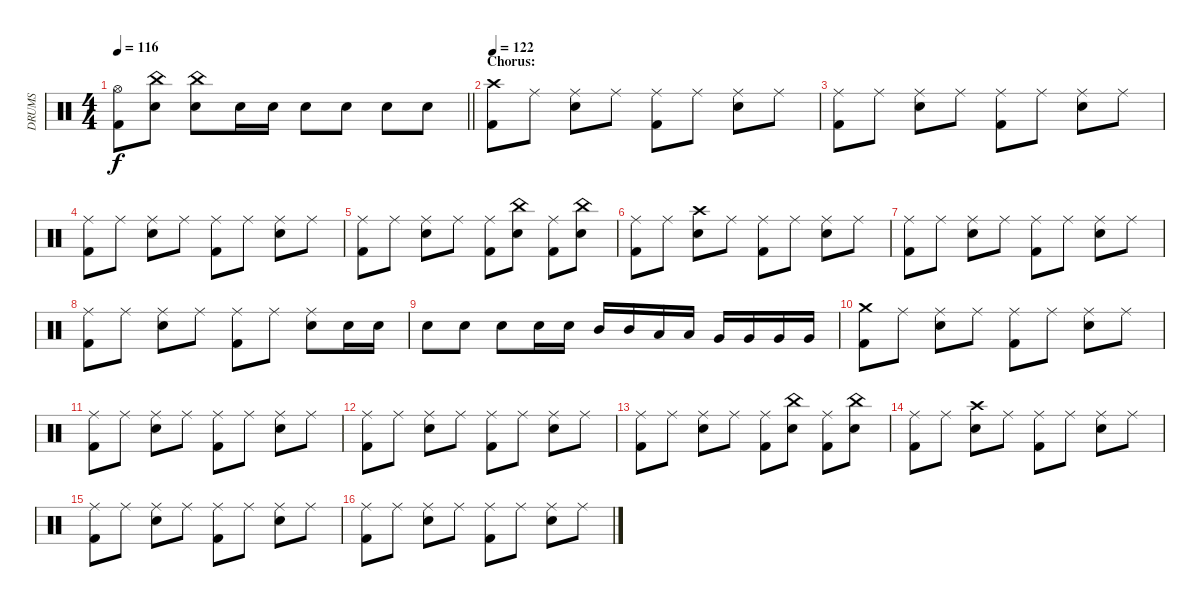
\track ("DRUMS" "DRUMS") {instrument percussion}
\staff {score}
\articulation defaults
\ts (4 4)
\tempo 116
\clef neutral
\barLineRight lightlight
\ks c
("Hi-Hat (open)" "Kick (hit) 2").8{dy f} ("China (hit)" "Snare (hit) 2").8 ("China (hit)" "Snare (hit) 2").8 "Snare (hit) 2".16 "Snare (hit) 2".16 "Snare (hit) 2".8 "Snare (hit) 2".8 "Snare (hit) 2".8 "Snare (hit) 2".8 |
\section ("" "Chorus:")
\tempo 122
("Crash high (hit)" "Kick (hit) 2").8 "Ride (middle)".8 ("Ride (middle)" "Snare (hit) 2").8 "Ride (middle)".8 ("Ride (middle)" "Kick (hit) 2").8 "Ride (middle)".8 ("Ride (middle)" "Snare (hit) 2").8 "Ride (middle)".8 |
("Ride (middle)" "Kick (hit) 2").8 "Ride (middle)".8 ("Ride (middle)" "Snare (hit) 2").8 "Ride (middle)".8 ("Ride (middle)" "Kick (hit) 2").8 "Ride (middle)".8 ("Ride (middle)" "Snare (hit) 2").8 "Ride (middle)".8 |
("Ride (middle)" "Kick (hit) 2").8 "Ride (middle)".8 ("Ride (middle)" "Snare (hit) 2").8 "Ride (middle)".8 ("Ride (middle)" "Kick (hit) 2").8 "Ride (middle)".8 ("Ride (middle)" "Snare (hit) 2").8 "Ride (middle)".8 |
("Ride (middle)" "Kick (hit) 2").8 "Ride (middle)".8 ("Ride (middle)" "Snare (hit) 2").8 "Ride (middle)".8 ("Ride (middle)" "Kick (hit) 2").8 ("China (hit)" "Snare (hit) 2").8 ("Ride (middle)" "Kick (hit) 2").8 ("China (hit)" "Snare (hit) 2").8 |
("Ride (middle)" "Kick (hit) 2").8 "Ride (middle)".8 ("Crash high (hit)" "Snare (hit) 2").8 "Ride (middle)".8 ("Ride (middle)" "Kick (hit) 2").8 "Ride (middle)".8 ("Ride (middle)" "Snare (hit) 2").8 "Ride (middle)".8 |
("Ride (middle)" "Kick (hit) 2").8 "Ride (middle)".8 ("Ride (middle)" "Snare (hit) 2").8 "Ride (middle)".8 ("Ride (middle)" "Kick (hit) 2").8 "Ride (middle)".8 ("Ride (middle)" "Snare (hit) 2").8 "Ride (middle)".8 |
("Ride (middle)" "Kick (hit) 2").8 "Ride (middle)".8 ("Ride (middle)" "Snare (hit) 2").8 "Ride (middle)".8 ("Ride (middle)" "Kick (hit) 2").8 "Ride (middle)".8 ("Ride (middle)" "Snare (hit) 2").8 "Snare (hit) 2".16 "Snare (hit) 2".16 |
"Snare (hit) 2".8 "Snare (hit) 2".8 "Snare (hit) 2".8 "Snare (hit) 2".16 "Snare (hit) 2".16 "Mid Tom (hit)".16 "Mid Tom (hit)".16 "Low Tom (hit)".16 "Low Tom (hit)".16 "Very Low Tom (hit)".16 "Very Low Tom (hit)".16 "Very Low Tom (hit)".16 "Very Low Tom (hit)".16 |
("Crash medium (hit)" "Kick (hit) 2").8 "Ride (middle)".8 ("Ride (middle)" "Snare (hit) 2").8 "Ride (middle)".8 ("Ride (middle)" "Kick (hit) 2").8 "Ride (middle)".8 ("Ride (middle)" "Snare (hit) 2").8 "Ride (middle)".8 |
("Ride (middle)" "Kick (hit) 2").8 "Ride (middle)".8 ("Ride (middle)" "Snare (hit) 2").8 "Ride (middle)".8 ("Ride (middle)" "Kick (hit) 2").8 "Ride (middle)".8 ("Ride (middle)" "Snare (hit) 2").8 "Ride (middle)".8 |
("Ride (middle)" "Kick (hit) 2").8 "Ride (middle)".8 ("Ride (middle)" "Snare (hit) 2").8 "Ride (middle)".8 ("Ride (middle)" "Kick (hit) 2").8 "Ride (middle)".8 ("Ride (middle)" "Snare (hit) 2").8 "Ride (middle)".8 |
("Ride (middle)" "Kick (hit) 2").8 "Ride (middle)".8 ("Ride (middle)" "Snare (hit) 2").8 "Ride (middle)".8 ("Ride (middle)" "Kick (hit) 2").8 ("China (hit)" "Snare (hit) 2").8 ("Ride (middle)" "Kick (hit) 2").8 ("China (hit)" "Snare (hit) 2").8 |
("Ride (middle)" "Kick (hit) 2").8 "Ride (middle)".8 ("Crash high (hit)" "Snare (hit) 2").8 "Ride (middle)".8 ("Ride (middle)" "Kick (hit) 2").8 "Ride (middle)".8 ("Ride (middle)" "Snare (hit) 2").8 "Ride (middle)".8 |
("Ride (middle)" "Kick (hit) 2").8 "Ride (middle)".8 ("Ride (middle)" "Snare (hit) 2").8 "Ride (middle)".8 ("Ride (middle)" "Kick (hit) 2").8 "Ride (middle)".8 ("Ride (middle)" "Snare (hit) 2").8 "Ride (middle)".8 |
("Ride (middle)" "Kick (hit) 2").8 "Ride (middle)".8 ("Ride (middle)" "Snare (hit) 2").8 "Ride (middle)".8 ("Ride (middle)" "Kick (hit) 2").8 "Ride (middle)".8 ("Ride (middle)" "Snare (hit) 2").8 "Ride (middle)".8
